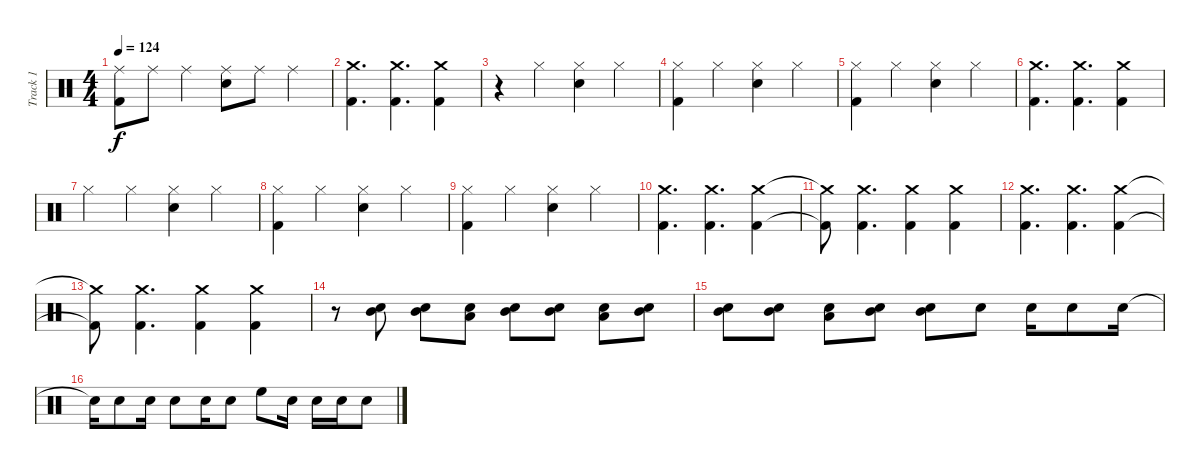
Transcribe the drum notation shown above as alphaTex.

\track ("Track 1" "Track 1") {instrument percussion}
\staff {score}
\articulation defaults
\ts (4 4)
\tempo 124
\clef neutral
\ks c
("Ride (middle)" "Kick (hit) 2").8{dy f} "Ride (middle)".8 "Ride (middle)".4 ("Ride (middle)" "Electric Snare (hit)").8 "Ride (middle)".8 "Ride (middle)".4 |
("Crash medium (hit)" "Kick (hit) 2").4{d} ("Crash medium (hit)" "Kick (hit) 2").4{d} ("Crash medium (hit)" "Kick (hit) 2").4 |
r.4 "Hi-Hat (closed)".4 ("Hi-Hat (closed)" "Electric Snare (hit)").4 "Hi-Hat (closed)".4 |
("Hi-Hat (closed)" "Kick (hit) 2").4 "Hi-Hat (closed)".4 ("Hi-Hat (closed)" "Electric Snare (hit)").4 "Hi-Hat (closed)".4 |
("Hi-Hat (closed)" "Kick (hit) 2").4 "Hi-Hat (closed)".4 ("Hi-Hat (closed)" "Electric Snare (hit)").4 "Hi-Hat (closed)".4 |
("Crash medium (hit)" "Kick (hit) 2").4{d} ("Crash medium (hit)" "Kick (hit) 2").4{d} ("Crash medium (hit)" "Kick (hit) 2").4 |
"Hi-Hat (closed)".4 "Hi-Hat (closed)".4 ("Hi-Hat (closed)" "Electric Snare (hit)").4 "Hi-Hat (closed)".4 |
("Hi-Hat (closed)" "Kick (hit) 2").4 "Hi-Hat (closed)".4 ("Hi-Hat (closed)" "Electric Snare (hit)").4 "Hi-Hat (closed)".4 |
("Hi-Hat (closed)" "Kick (hit) 2").4 "Hi-Hat (closed)".4 ("Hi-Hat (closed)" "Electric Snare (hit)").4 "Hi-Hat (closed)".4 |
("Crash medium (hit)" "Kick (hit) 2").4{d} ("Crash medium (hit)" "Kick (hit) 2").4{d} ("Crash medium (hit)" "Kick (hit) 2").4 |
("Crash medium (hit)"{t} "Kick (hit) 2"{t}).8 ("Crash medium (hit)" "Kick (hit) 2").4{d} ("Crash medium (hit)" "Kick (hit) 2").4 ("Crash medium (hit)" "Kick (hit) 2").4 |
("Crash medium (hit)" "Kick (hit) 2").4{d} ("Crash medium (hit)" "Kick (hit) 2").4{d} ("Crash medium (hit)" "Kick (hit) 2").4 |
("Crash medium (hit)"{t} "Kick (hit) 2"{t}).8 ("Crash medium (hit)" "Kick (hit) 2").4{d} ("Crash medium (hit)" "Kick (hit) 2").4 ("Crash medium (hit)" "Kick (hit) 2").4 |
r.8 ("Electric Snare (hit)" "Mid Tom (hit)").8 ("Electric Snare (hit)" "Mid Tom (hit)").8 ("Electric Snare (hit)" "Low Tom (hit)").8 ("Electric Snare (hit)" "Mid Tom (hit)").8 ("Electric Snare (hit)" "Mid Tom (hit)").8 ("Electric Snare (hit)" "Low Tom (hit)").8 ("Electric Snare (hit)" "Mid Tom (hit)").8 |
("Electric Snare (hit)" "Mid Tom (hit)").8 ("Electric Snare (hit)" "Mid Tom (hit)").8 ("Electric Snare (hit)" "Low Tom (hit)").8 ("Electric Snare (hit)" "Mid Tom (hit)").8 ("Electric Snare (hit)" "Mid Tom (hit)").8 "Electric Snare (hit)".8 "Electric Snare (hit)".16 "Electric Snare (hit)".8 "Electric Snare (hit)".16 |
"Electric Snare (hit)"{t}.16 "Electric Snare (hit)".8 "Electric Snare (hit)".16 "Electric Snare (hit)".8 "Electric Snare (hit)".16 "Electric Snare (hit)".8 "High Floor Tom (hit)".8 "Electric Snare (hit)".16 "Electric Snare (hit)".16 "Electric Snare (hit)".16 "Electric Snare (hit)".8
